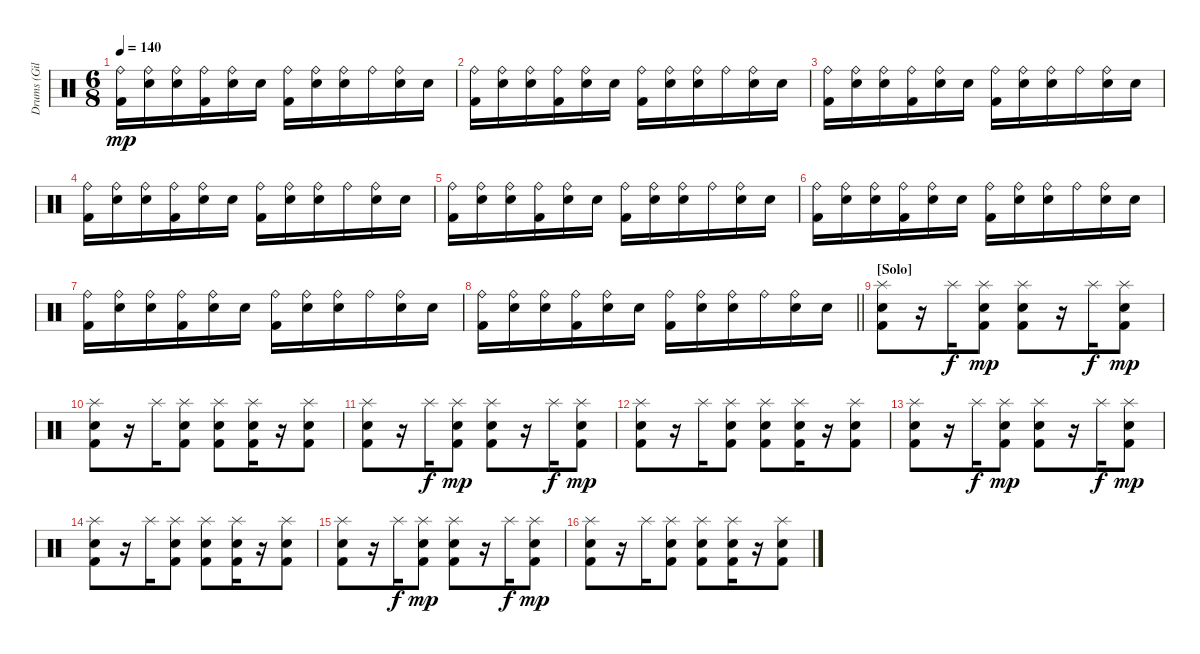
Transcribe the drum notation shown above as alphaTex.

\track ("Drums (Giles)" "Drums (Gil") {instrument percussion}
\staff {score}
\articulation defaults
\ts (6 8)
\tempo 140
\clef neutral
\ks c
("Ride (bell)" "Kick (hit) 2").16{dy mp} ("Ride (bell)" "Electric Snare (hit)").16 ("Ride (bell)" "Electric Snare (hit)").16 ("Ride (bell)" "Kick (hit) 2").16 ("Ride (bell)" "Electric Snare (hit)").16 "Electric Snare (hit)".16 ("Ride (bell)" "Kick (hit) 2").16 ("Ride (bell)" "Electric Snare (hit)").16 ("Ride (bell)" "Electric Snare (hit)").16 "Ride (bell)".16 ("Ride (bell)" "Electric Snare (hit)").16 "Electric Snare (hit)".16 |
("Ride (bell)" "Kick (hit) 2").16 ("Ride (bell)" "Electric Snare (hit)").16 ("Ride (bell)" "Electric Snare (hit)").16 ("Ride (bell)" "Kick (hit) 2").16 ("Ride (bell)" "Electric Snare (hit)").16 "Electric Snare (hit)".16 ("Ride (bell)" "Kick (hit) 2").16 ("Ride (bell)" "Electric Snare (hit)").16 ("Ride (bell)" "Electric Snare (hit)").16 "Ride (bell)".16 ("Ride (bell)" "Electric Snare (hit)").16 "Electric Snare (hit)".16 |
("Ride (bell)" "Kick (hit) 2").16 ("Ride (bell)" "Electric Snare (hit)").16 ("Ride (bell)" "Electric Snare (hit)").16 ("Ride (bell)" "Kick (hit) 2").16 ("Ride (bell)" "Electric Snare (hit)").16 "Electric Snare (hit)".16 ("Ride (bell)" "Kick (hit) 2").16 ("Ride (bell)" "Electric Snare (hit)").16 ("Ride (bell)" "Electric Snare (hit)").16 "Ride (bell)".16 ("Ride (bell)" "Electric Snare (hit)").16 "Electric Snare (hit)".16 |
("Ride (bell)" "Kick (hit) 2").16 ("Ride (bell)" "Electric Snare (hit)").16 ("Ride (bell)" "Electric Snare (hit)").16 ("Ride (bell)" "Kick (hit) 2").16 ("Ride (bell)" "Electric Snare (hit)").16 "Electric Snare (hit)".16 ("Ride (bell)" "Kick (hit) 2").16 ("Ride (bell)" "Electric Snare (hit)").16 ("Ride (bell)" "Electric Snare (hit)").16 "Ride (bell)".16 ("Ride (bell)" "Electric Snare (hit)").16 "Electric Snare (hit)".16 |
("Ride (bell)" "Kick (hit) 2").16 ("Ride (bell)" "Electric Snare (hit)").16 ("Ride (bell)" "Electric Snare (hit)").16 ("Ride (bell)" "Kick (hit) 2").16 ("Ride (bell)" "Electric Snare (hit)").16 "Electric Snare (hit)".16 ("Ride (bell)" "Kick (hit) 2").16 ("Ride (bell)" "Electric Snare (hit)").16 ("Ride (bell)" "Electric Snare (hit)").16 "Ride (bell)".16 ("Ride (bell)" "Electric Snare (hit)").16 "Electric Snare (hit)".16 |
("Ride (bell)" "Kick (hit) 2").16 ("Ride (bell)" "Electric Snare (hit)").16 ("Ride (bell)" "Electric Snare (hit)").16 ("Ride (bell)" "Kick (hit) 2").16 ("Ride (bell)" "Electric Snare (hit)").16 "Electric Snare (hit)".16 ("Ride (bell)" "Kick (hit) 2").16 ("Ride (bell)" "Electric Snare (hit)").16 ("Ride (bell)" "Electric Snare (hit)").16 "Ride (bell)".16 ("Ride (bell)" "Electric Snare (hit)").16 "Electric Snare (hit)".16 |
("Ride (bell)" "Kick (hit) 2").16 ("Ride (bell)" "Electric Snare (hit)").16 ("Ride (bell)" "Electric Snare (hit)").16 ("Ride (bell)" "Kick (hit) 2").16 ("Ride (bell)" "Electric Snare (hit)").16 "Electric Snare (hit)".16 ("Ride (bell)" "Kick (hit) 2").16 ("Ride (bell)" "Electric Snare (hit)").16 ("Ride (bell)" "Electric Snare (hit)").16 "Ride (bell)".16 ("Ride (bell)" "Electric Snare (hit)").16 "Electric Snare (hit)".16 |
\barLineRight lightlight
("Ride (bell)" "Kick (hit) 2").16 ("Ride (bell)" "Electric Snare (hit)").16 ("Ride (bell)" "Electric Snare (hit)").16 ("Ride (bell)" "Kick (hit) 2").16 ("Ride (bell)" "Electric Snare (hit)").16 "Electric Snare (hit)".16 ("Ride (bell)" "Kick (hit) 2").16 ("Ride (bell)" "Electric Snare (hit)").16 ("Ride (bell)" "Electric Snare (hit)").16 "Ride (bell)".16 ("Ride (bell)" "Electric Snare (hit)").16 "Electric Snare (hit)".16 |
\section ("" "[Solo]")
("Splash (hit)" "Electric Snare (hit)" "Kick (hit) 2").8{volume 11} r.16 "Splash (hit)".16{dy f} ("Splash (hit)" "Electric Snare (hit)" "Kick (hit) 2").8{dy mp} ("Splash (hit)" "Electric Snare (hit)" "Kick (hit) 2").8 r.16 "Splash (hit)".16{dy f} ("Splash (hit)" "Electric Snare (hit)" "Kick (hit) 2").8{dy mp} |
("Splash (hit)" "Electric Snare (hit)" "Kick (hit) 2").8 r.16 "Splash (hit)".16 ("Splash (hit)" "Electric Snare (hit)" "Kick (hit) 2").8 ("Splash (hit)" "Electric Snare (hit)" "Kick (hit) 2").8 ("Splash (hit)" "Electric Snare (hit)" "Kick (hit) 2").16 r.16 ("Splash (hit)" "Electric Snare (hit)" "Kick (hit) 2").8 |
("Splash (hit)" "Electric Snare (hit)" "Kick (hit) 2").8 r.16 "Splash (hit)".16{dy f} ("Splash (hit)" "Electric Snare (hit)" "Kick (hit) 2").8{dy mp} ("Splash (hit)" "Electric Snare (hit)" "Kick (hit) 2").8 r.16 "Splash (hit)".16{dy f} ("Splash (hit)" "Electric Snare (hit)" "Kick (hit) 2").8{dy mp} |
("Splash (hit)" "Electric Snare (hit)" "Kick (hit) 2").8 r.16 "Splash (hit)".16 ("Splash (hit)" "Electric Snare (hit)" "Kick (hit) 2").8 ("Splash (hit)" "Electric Snare (hit)" "Kick (hit) 2").8 ("Splash (hit)" "Electric Snare (hit)" "Kick (hit) 2").16 r.16 ("Splash (hit)" "Electric Snare (hit)" "Kick (hit) 2").8 |
("Splash (hit)" "Electric Snare (hit)" "Kick (hit) 2").8 r.16 "Splash (hit)".16{dy f} ("Splash (hit)" "Electric Snare (hit)" "Kick (hit) 2").8{dy mp} ("Splash (hit)" "Electric Snare (hit)" "Kick (hit) 2").8 r.16 "Splash (hit)".16{dy f} ("Splash (hit)" "Electric Snare (hit)" "Kick (hit) 2").8{dy mp} |
("Splash (hit)" "Electric Snare (hit)" "Kick (hit) 2").8 r.16 "Splash (hit)".16 ("Splash (hit)" "Electric Snare (hit)" "Kick (hit) 2").8 ("Splash (hit)" "Electric Snare (hit)" "Kick (hit) 2").8 ("Splash (hit)" "Electric Snare (hit)" "Kick (hit) 2").16 r.16 ("Splash (hit)" "Electric Snare (hit)" "Kick (hit) 2").8 |
("Splash (hit)" "Electric Snare (hit)" "Kick (hit) 2").8 r.16 "Splash (hit)".16{dy f} ("Splash (hit)" "Electric Snare (hit)" "Kick (hit) 2").8{dy mp} ("Splash (hit)" "Electric Snare (hit)" "Kick (hit) 2").8 r.16 "Splash (hit)".16{dy f} ("Splash (hit)" "Electric Snare (hit)" "Kick (hit) 2").8{dy mp} |
("Splash (hit)" "Electric Snare (hit)" "Kick (hit) 2").8 r.16 "Splash (hit)".16 ("Splash (hit)" "Electric Snare (hit)" "Kick (hit) 2").8 ("Splash (hit)" "Electric Snare (hit)" "Kick (hit) 2").8 ("Splash (hit)" "Electric Snare (hit)" "Kick (hit) 2").16 r.16 ("Splash (hit)" "Electric Snare (hit)" "Kick (hit) 2").8
